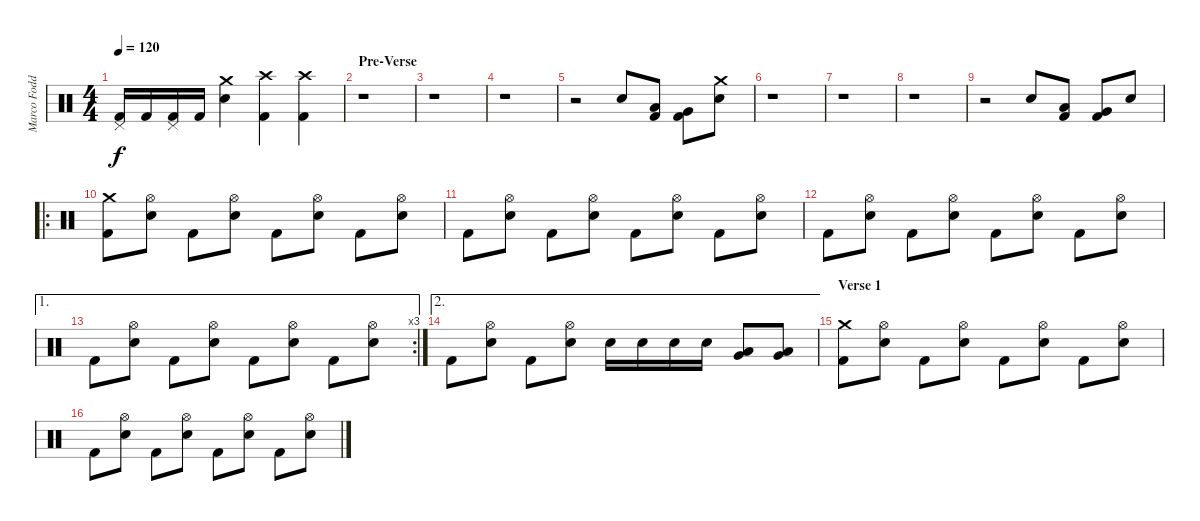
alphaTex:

\track ("Marco Foddis " "Marco Fodd") {instrument percussion}
\staff {score}
\articulation defaults
\ts (4 4)
\tempo 120
\clef neutral
\ks c
("Pedal Hi-Hat (hit)" "Kick (hit) 2").16{dy f} "Kick (hit) 2".16 ("Pedal Hi-Hat (hit)" "Kick (hit) 2").16 "Kick (hit) 2".16 ("Crash medium (hit)" "Electric Snare (hit)").4 ("Crash high (hit)" "Kick (hit) 2").4 ("Crash high (hit)" "Kick (hit) 2").4 |
\section ("" "Pre-Verse")
r.1 |
r.1 |
r.1 |
r.2 "Electric Snare (hit)".8 ("Low Tom (hit)" "Kick (hit) 2").8 ("Very Low Tom (hit)" "Kick (hit) 2").8 ("Crash medium (hit)" "Electric Snare (hit)").8 |
r.1 |
r.1 |
r.1 |
r.2 "Electric Snare (hit)".8 ("Low Tom (hit)" "Kick (hit) 2").8 ("Very Low Tom (hit)" "Kick (hit) 2").8 "Electric Snare (hit)".8 |
\ro
("Crash medium (hit)" "Kick (hit) 2").8 ("Hi-Hat (open)" "Electric Snare (hit)").8 "Kick (hit) 2".8 ("Hi-Hat (open)" "Electric Snare (hit)").8 "Kick (hit) 2".8 ("Hi-Hat (open)" "Electric Snare (hit)").8 "Kick (hit) 2".8 ("Hi-Hat (open)" "Electric Snare (hit)").8 |
"Kick (hit) 2".8 ("Hi-Hat (open)" "Electric Snare (hit)").8 "Kick (hit) 2".8 ("Hi-Hat (open)" "Electric Snare (hit)").8 "Kick (hit) 2".8 ("Hi-Hat (open)" "Electric Snare (hit)").8 "Kick (hit) 2".8 ("Hi-Hat (open)" "Electric Snare (hit)").8 |
"Kick (hit) 2".8 ("Hi-Hat (open)" "Electric Snare (hit)").8 "Kick (hit) 2".8 ("Hi-Hat (open)" "Electric Snare (hit)").8 "Kick (hit) 2".8 ("Hi-Hat (open)" "Electric Snare (hit)").8 "Kick (hit) 2".8 ("Hi-Hat (open)" "Electric Snare (hit)").8 |
\ae 1
\rc 3 "Kick (hit) 2".8
("Hi-Hat (open)" "Electric Snare (hit)").8 "Kick (hit) 2".8 ("Hi-Hat (open)" "Electric Snare (hit)").8 "Kick (hit) 2".8 ("Hi-Hat (open)" "Electric Snare (hit)").8 "Kick (hit) 2".8 ("Hi-Hat (open)" "Electric Snare (hit)").8 |
\ae 2 "Kick (hit) 2".8
("Hi-Hat (open)" "Electric Snare (hit)").8 "Kick (hit) 2".8 ("Hi-Hat (open)" "Electric Snare (hit)").8 "Electric Snare (hit)".16 "Electric Snare (hit)".16 "Electric Snare (hit)".16 "Electric Snare (hit)".16 ("Low Tom (hit)" "Very Low Tom (hit)").8 ("Low Tom (hit)" "Very Low Tom (hit)").8 |
\section ("" "Verse 1")
("Crash medium (hit)" "Kick (hit) 2").8 ("Hi-Hat (open)" "Electric Snare (hit)").8 "Kick (hit) 2".8 ("Hi-Hat (open)" "Electric Snare (hit)").8 "Kick (hit) 2".8 ("Hi-Hat (open)" "Electric Snare (hit)").8 "Kick (hit) 2".8 ("Hi-Hat (open)" "Electric Snare (hit)").8 |
"Kick (hit) 2".8 ("Hi-Hat (open)" "Electric Snare (hit)").8 "Kick (hit) 2".8 ("Hi-Hat (open)" "Electric Snare (hit)").8 "Kick (hit) 2".8 ("Hi-Hat (open)" "Electric Snare (hit)").8 "Kick (hit) 2".8 ("Hi-Hat (open)" "Electric Snare (hit)").8
